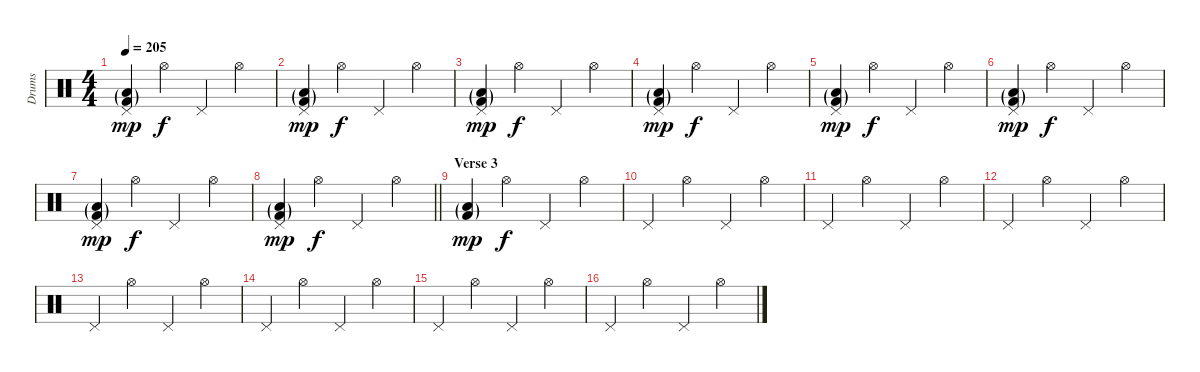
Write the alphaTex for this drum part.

\track ("Drums" "Drums") {instrument percussion}
\staff {score}
\articulation defaults
\ts (4 4)
\tempo 205
\clef neutral
\ks c
("Pedal Hi-Hat (hit)" "Low Floor Tom (hit)"{g} "Kick (hit) 2"{g}).4{dy mp} "Hi-Hat (open)".4{dy f} "Pedal Hi-Hat (hit)".4 "Hi-Hat (open)".4 |
("Pedal Hi-Hat (hit)" "Low Floor Tom (hit)"{g} "Kick (hit) 2"{g}).4{dy mp} "Hi-Hat (open)".4{dy f} "Pedal Hi-Hat (hit)".4 "Hi-Hat (open)".4 |
("Pedal Hi-Hat (hit)" "Low Floor Tom (hit)"{g} "Kick (hit) 2"{g}).4{dy mp} "Hi-Hat (open)".4{dy f} "Pedal Hi-Hat (hit)".4 "Hi-Hat (open)".4 |
("Pedal Hi-Hat (hit)" "Low Floor Tom (hit)"{g} "Kick (hit) 2"{g}).4{dy mp} "Hi-Hat (open)".4{dy f} "Pedal Hi-Hat (hit)".4 "Hi-Hat (open)".4 |
("Pedal Hi-Hat (hit)" "Low Floor Tom (hit)"{g} "Kick (hit) 2"{g}).4{dy mp} "Hi-Hat (open)".4{dy f} "Pedal Hi-Hat (hit)".4 "Hi-Hat (open)".4 |
("Pedal Hi-Hat (hit)" "Low Floor Tom (hit)"{g} "Kick (hit) 2"{g}).4{dy mp} "Hi-Hat (open)".4{dy f} "Pedal Hi-Hat (hit)".4 "Hi-Hat (open)".4 |
("Pedal Hi-Hat (hit)" "Low Floor Tom (hit)"{g} "Kick (hit) 2"{g}).4{dy mp} "Hi-Hat (open)".4{dy f} "Pedal Hi-Hat (hit)".4 "Hi-Hat (open)".4 |
\barLineRight lightlight
("Pedal Hi-Hat (hit)" "Low Floor Tom (hit)"{g} "Kick (hit) 2"{g}).4{dy mp} "Hi-Hat (open)".4{dy f} "Pedal Hi-Hat (hit)".4 "Hi-Hat (open)".4 |
\section ("" "Verse 3")
("Low Floor Tom (hit)"{g} "Kick (hit) 2"{g}).4{dy mp} "Hi-Hat (open)".4{dy f} "Pedal Hi-Hat (hit)".4 "Hi-Hat (open)".4 |
"Pedal Hi-Hat (hit)".4 "Hi-Hat (open)".4 "Pedal Hi-Hat (hit)".4 "Hi-Hat (open)".4 |
"Pedal Hi-Hat (hit)".4 "Hi-Hat (open)".4 "Pedal Hi-Hat (hit)".4 "Hi-Hat (open)".4 |
"Pedal Hi-Hat (hit)".4 "Hi-Hat (open)".4 "Pedal Hi-Hat (hit)".4 "Hi-Hat (open)".4 |
"Pedal Hi-Hat (hit)".4 "Hi-Hat (open)".4 "Pedal Hi-Hat (hit)".4 "Hi-Hat (open)".4 |
"Pedal Hi-Hat (hit)".4 "Hi-Hat (open)".4 "Pedal Hi-Hat (hit)".4 "Hi-Hat (open)".4 |
"Pedal Hi-Hat (hit)".4 "Hi-Hat (open)".4 "Pedal Hi-Hat (hit)".4 "Hi-Hat (open)".4 |
"Pedal Hi-Hat (hit)".4 "Hi-Hat (open)".4 "Pedal Hi-Hat (hit)".4 "Hi-Hat (open)".4
